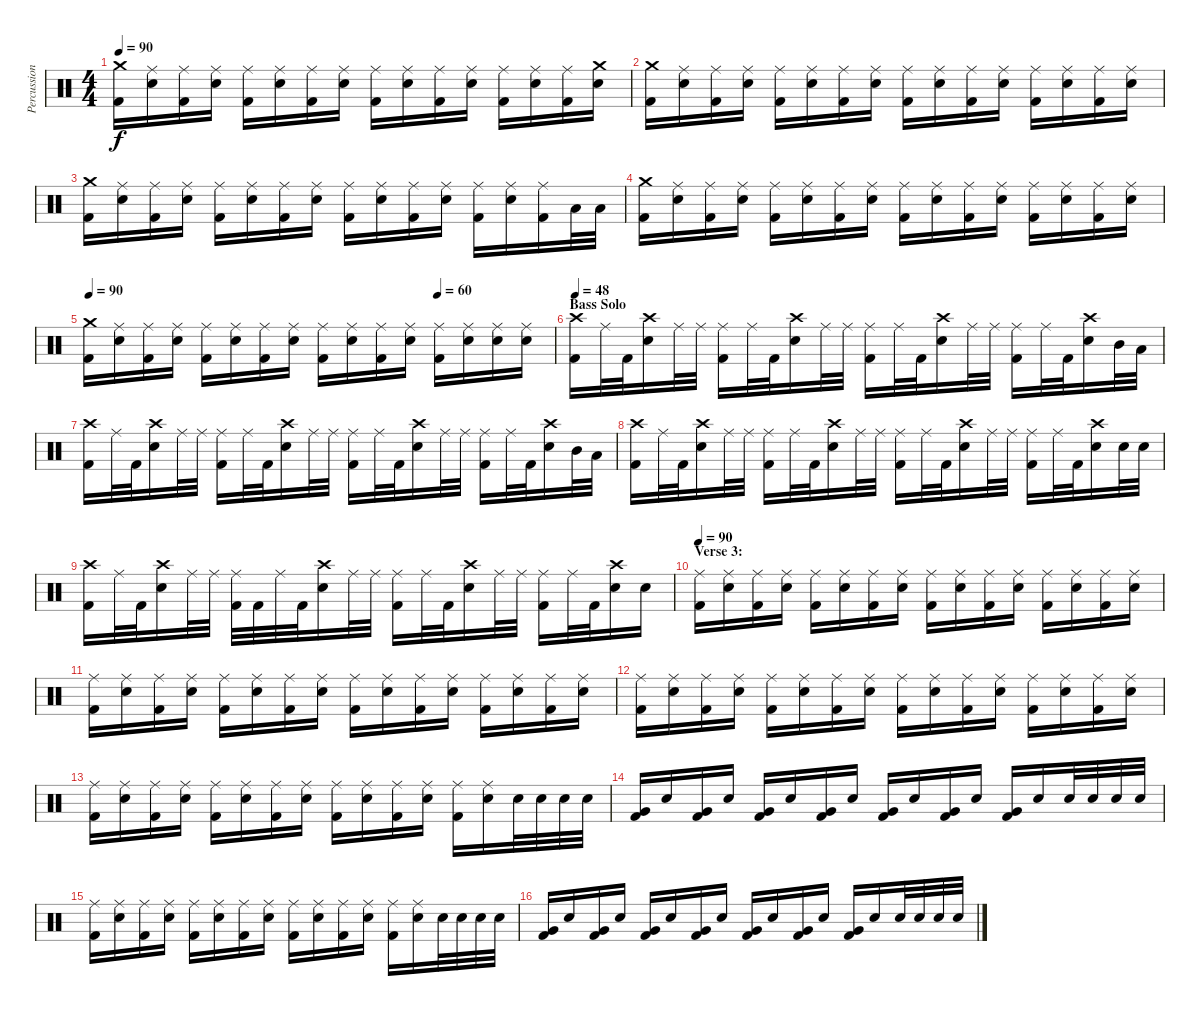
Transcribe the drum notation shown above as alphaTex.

\track ("Percussion" "Percussion") {instrument percussion}
\staff {score}
\articulation defaults
\ts (4 4)
\tempo 90
\clef neutral
\ks c
("Crash medium (hit)" "Kick (hit) 2").16{dy f} ("Ride (middle)" "Electric Snare (hit)").16 ("Ride (middle)" "Kick (hit) 2").16 ("Ride (middle)" "Electric Snare (hit)").16 ("Ride (middle)" "Kick (hit) 2").16 ("Ride (middle)" "Electric Snare (hit)").16 ("Ride (middle)" "Kick (hit) 2").16 ("Ride (middle)" "Electric Snare (hit)").16 ("Ride (middle)" "Kick (hit) 2").16 ("Ride (middle)" "Electric Snare (hit)").16 ("Ride (middle)" "Kick (hit) 2").16 ("Ride (middle)" "Electric Snare (hit)").16 ("Ride (middle)" "Kick (hit) 2").16 ("Ride (middle)" "Electric Snare (hit)").16 ("Ride (middle)" "Kick (hit) 2").16 ("Crash medium (hit)" "Electric Snare (hit)").16 |
("Crash medium (hit)" "Kick (hit) 2").16 ("Ride (middle)" "Electric Snare (hit)").16 ("Ride (middle)" "Kick (hit) 2").16 ("Ride (middle)" "Electric Snare (hit)").16 ("Ride (middle)" "Kick (hit) 2").16 ("Ride (middle)" "Electric Snare (hit)").16 ("Ride (middle)" "Kick (hit) 2").16 ("Ride (middle)" "Electric Snare (hit)").16 ("Ride (middle)" "Kick (hit) 2").16 ("Ride (middle)" "Electric Snare (hit)").16 ("Ride (middle)" "Kick (hit) 2").16 ("Ride (middle)" "Electric Snare (hit)").16 ("Ride (middle)" "Kick (hit) 2").16 ("Ride (middle)" "Electric Snare (hit)").16 ("Ride (middle)" "Kick (hit) 2").16 ("Ride (middle)" "Electric Snare (hit)").16 |
("Crash medium (hit)" "Kick (hit) 2").16 ("Ride (middle)" "Electric Snare (hit)").16 ("Ride (middle)" "Kick (hit) 2").16 ("Ride (middle)" "Electric Snare (hit)").16 ("Ride (middle)" "Kick (hit) 2").16 ("Ride (middle)" "Electric Snare (hit)").16 ("Ride (middle)" "Kick (hit) 2").16 ("Ride (middle)" "Electric Snare (hit)").16 ("Ride (middle)" "Kick (hit) 2").16 ("Ride (middle)" "Electric Snare (hit)").16 ("Ride (middle)" "Kick (hit) 2").16 ("Ride (middle)" "Electric Snare (hit)").16 ("Ride (middle)" "Kick (hit) 2").16 ("Ride (middle)" "Electric Snare (hit)").16 ("Ride (middle)" "Kick (hit) 2").16 "Low Tom (hit)".32 "Low Tom (hit)".32 |
("Crash medium (hit)" "Kick (hit) 2").16 ("Ride (middle)" "Electric Snare (hit)").16 ("Ride (middle)" "Kick (hit) 2").16 ("Ride (middle)" "Electric Snare (hit)").16 ("Ride (middle)" "Kick (hit) 2").16 ("Ride (middle)" "Electric Snare (hit)").16 ("Ride (middle)" "Kick (hit) 2").16 ("Ride (middle)" "Electric Snare (hit)").16 ("Ride (middle)" "Kick (hit) 2").16 ("Ride (middle)" "Electric Snare (hit)").16 ("Ride (middle)" "Kick (hit) 2").16 ("Ride (middle)" "Electric Snare (hit)").16 ("Ride (middle)" "Kick (hit) 2").16 ("Ride (middle)" "Electric Snare (hit)").16 ("Ride (middle)" "Kick (hit) 2").16 ("Ride (middle)" "Electric Snare (hit)").16 |
\tempo 90
\tempo (60 0.75)
("Crash medium (hit)" "Kick (hit) 2").16 ("Ride (middle)" "Electric Snare (hit)").16 ("Ride (middle)" "Kick (hit) 2").16 ("Ride (middle)" "Electric Snare (hit)").16 ("Ride (middle)" "Kick (hit) 2").16 ("Ride (middle)" "Electric Snare (hit)").16 ("Ride (middle)" "Kick (hit) 2").16 ("Ride (middle)" "Electric Snare (hit)").16 ("Ride (middle)" "Kick (hit) 2").16 ("Ride (middle)" "Electric Snare (hit)").16 ("Ride (middle)" "Kick (hit) 2").16 ("Ride (middle)" "Electric Snare (hit)").16 ("Ride (middle)" "Kick (hit) 2").16 ("Ride (middle)" "Electric Snare (hit)").16 ("Ride (middle)" "Electric Snare (hit)").16 ("Ride (middle)" "Electric Snare (hit)").16 |
\section ("" "Bass Solo")
\tempo 48
("Crash high (hit)" "Kick (hit) 2").16 "Ride (middle)".32 "Kick (hit) 2".32 ("Crash high (hit)" "Electric Snare (hit)").16 "Ride (middle)".32 "Ride (middle)".32 ("Ride (middle)" "Kick (hit) 2").16 "Ride (middle)".32 "Kick (hit) 2".32 ("Crash high (hit)" "Electric Snare (hit)").16 "Ride (middle)".32 "Ride (middle)".32 ("Ride (middle)" "Kick (hit) 2").16 "Ride (middle)".32 "Kick (hit) 2".32 ("Crash high (hit)" "Electric Snare (hit)").16 "Ride (middle)".32 "Ride (middle)".32 ("Ride (middle)" "Kick (hit) 2").16 "Ride (middle)".32 "Kick (hit) 2".32 ("Crash high (hit)" "Electric Snare (hit)").16 "Mid Tom (hit)".32 "Low Tom (hit)".32 |
("Crash high (hit)" "Kick (hit) 2").16 "Ride (middle)".32 "Kick (hit) 2".32 ("Crash high (hit)" "Electric Snare (hit)").16 "Ride (middle)".32 "Ride (middle)".32 ("Ride (middle)" "Kick (hit) 2").16 "Ride (middle)".32 "Kick (hit) 2".32 ("Crash high (hit)" "Electric Snare (hit)").16 "Ride (middle)".32 "Ride (middle)".32 ("Ride (middle)" "Kick (hit) 2").16 "Ride (middle)".32 "Kick (hit) 2".32 ("Crash high (hit)" "Electric Snare (hit)").16 "Ride (middle)".32 "Ride (middle)".32 ("Ride (middle)" "Kick (hit) 2").16 "Ride (middle)".32 "Kick (hit) 2".32 ("Crash high (hit)" "Electric Snare (hit)").16 "Mid Tom (hit)".32 "Low Tom (hit)".32 |
("Crash high (hit)" "Kick (hit) 2").16 "Ride (middle)".32 "Kick (hit) 2".32 ("Crash high (hit)" "Electric Snare (hit)").16 "Ride (middle)".32 "Ride (middle)".32 ("Ride (middle)" "Kick (hit) 2").16 "Ride (middle)".32 "Kick (hit) 2".32 ("Crash high (hit)" "Electric Snare (hit)").16 "Ride (middle)".32 "Ride (middle)".32 ("Ride (middle)" "Kick (hit) 2").16 "Ride (middle)".32 "Kick (hit) 2".32 ("Crash high (hit)" "Electric Snare (hit)").16 "Ride (middle)".32 "Ride (middle)".32 ("Ride (middle)" "Kick (hit) 2").16 "Ride (middle)".32 "Kick (hit) 2".32 ("Crash high (hit)" "Electric Snare (hit)").16 "Electric Snare (hit)".32 "Electric Snare (hit)".32 |
("Crash high (hit)" "Kick (hit) 2").16 "Ride (middle)".32 "Kick (hit) 2".32 ("Crash high (hit)" "Electric Snare (hit)").16 "Ride (middle)".32 "Ride (middle)".32 ("Ride (middle)" "Kick (hit) 2").32 "Kick (hit) 2".32 "Ride (middle)".32 "Kick (hit) 2".32 ("Crash high (hit)" "Electric Snare (hit)").16 "Ride (middle)".32 "Ride (middle)".32 ("Ride (middle)" "Kick (hit) 2").16 "Ride (middle)".32 "Kick (hit) 2".32 ("Crash high (hit)" "Electric Snare (hit)").16 "Ride (middle)".32 "Ride (middle)".32 ("Ride (middle)" "Kick (hit) 2").16 "Ride (middle)".32 "Kick (hit) 2".32 ("Crash high (hit)" "Electric Snare (hit)").16 "Electric Snare (hit)".16 |
\section ("" "Verse 3:")
\tempo 90
("Ride (middle)" "Kick (hit) 2").16 ("Ride (middle)" "Electric Snare (hit)").16 ("Ride (middle)" "Kick (hit) 2").16 ("Ride (middle)" "Electric Snare (hit)").16 ("Ride (middle)" "Kick (hit) 2").16 ("Ride (middle)" "Electric Snare (hit)").16 ("Ride (middle)" "Kick (hit) 2").16 ("Ride (middle)" "Electric Snare (hit)").16 ("Ride (middle)" "Kick (hit) 2").16 ("Ride (middle)" "Electric Snare (hit)").16 ("Ride (middle)" "Kick (hit) 2").16 ("Ride (middle)" "Electric Snare (hit)").16 ("Ride (middle)" "Kick (hit) 2").16 ("Ride (middle)" "Electric Snare (hit)").16 ("Ride (middle)" "Kick (hit) 2").16 ("Ride (middle)" "Electric Snare (hit)").16 |
("Ride (middle)" "Kick (hit) 2").16 ("Ride (middle)" "Electric Snare (hit)").16 ("Ride (middle)" "Kick (hit) 2").16 ("Ride (middle)" "Electric Snare (hit)").16 ("Ride (middle)" "Kick (hit) 2").16 ("Ride (middle)" "Electric Snare (hit)").16 ("Ride (middle)" "Kick (hit) 2").16 ("Ride (middle)" "Electric Snare (hit)").16 ("Ride (middle)" "Kick (hit) 2").16 ("Ride (middle)" "Electric Snare (hit)").16 ("Ride (middle)" "Kick (hit) 2").16 ("Ride (middle)" "Electric Snare (hit)").16 ("Ride (middle)" "Kick (hit) 2").16 ("Ride (middle)" "Electric Snare (hit)").16 ("Ride (middle)" "Kick (hit) 2").16 ("Ride (middle)" "Electric Snare (hit)").16 |
("Ride (middle)" "Kick (hit) 2").16 ("Ride (middle)" "Electric Snare (hit)").16 ("Ride (middle)" "Kick (hit) 2").16 ("Ride (middle)" "Electric Snare (hit)").16 ("Ride (middle)" "Kick (hit) 2").16 ("Ride (middle)" "Electric Snare (hit)").16 ("Ride (middle)" "Kick (hit) 2").16 ("Ride (middle)" "Electric Snare (hit)").16 ("Ride (middle)" "Kick (hit) 2").16 ("Ride (middle)" "Electric Snare (hit)").16 ("Ride (middle)" "Kick (hit) 2").16 ("Ride (middle)" "Electric Snare (hit)").16 ("Ride (middle)" "Kick (hit) 2").16 ("Ride (middle)" "Electric Snare (hit)").16 ("Ride (middle)" "Kick (hit) 2").16 ("Ride (middle)" "Electric Snare (hit)").16 |
("Ride (middle)" "Kick (hit) 2").16 ("Ride (middle)" "Electric Snare (hit)").16 ("Ride (middle)" "Kick (hit) 2").16 ("Ride (middle)" "Electric Snare (hit)").16 ("Ride (middle)" "Kick (hit) 2").16 ("Ride (middle)" "Electric Snare (hit)").16 ("Ride (middle)" "Kick (hit) 2").16 ("Ride (middle)" "Electric Snare (hit)").16 ("Ride (middle)" "Kick (hit) 2").16 ("Ride (middle)" "Electric Snare (hit)").16 ("Ride (middle)" "Kick (hit) 2").16 ("Ride (middle)" "Electric Snare (hit)").16 ("Ride (middle)" "Kick (hit) 2").16 ("Ride (middle)" "Electric Snare (hit)").16 "Electric Snare (hit)".32 "Electric Snare (hit)".32 "Electric Snare (hit)".32 "Electric Snare (hit)".32 |
("Very Low Tom (hit)" "Kick (hit) 2").16 "Electric Snare (hit)".16 ("Very Low Tom (hit)" "Kick (hit) 2").16 "Electric Snare (hit)".16 ("Very Low Tom (hit)" "Kick (hit) 2").16 "Electric Snare (hit)".16 ("Very Low Tom (hit)" "Kick (hit) 2").16 "Electric Snare (hit)".16 ("Very Low Tom (hit)" "Kick (hit) 2").16 "Electric Snare (hit)".16 ("Very Low Tom (hit)" "Kick (hit) 2").16 "Electric Snare (hit)".16 ("Very Low Tom (hit)" "Kick (hit) 2").16 "Electric Snare (hit)".16 "Electric Snare (hit)".32 "Electric Snare (hit)".32 "Electric Snare (hit)".32 "Electric Snare (hit)".32 |
("Ride (middle)" "Kick (hit) 2").16 ("Ride (middle)" "Electric Snare (hit)").16 ("Ride (middle)" "Kick (hit) 2").16 ("Ride (middle)" "Electric Snare (hit)").16 ("Ride (middle)" "Kick (hit) 2").16 ("Ride (middle)" "Electric Snare (hit)").16 ("Ride (middle)" "Kick (hit) 2").16 ("Ride (middle)" "Electric Snare (hit)").16 ("Ride (middle)" "Kick (hit) 2").16 ("Ride (middle)" "Electric Snare (hit)").16 ("Ride (middle)" "Kick (hit) 2").16 ("Ride (middle)" "Electric Snare (hit)").16 ("Ride (middle)" "Kick (hit) 2").16 ("Ride (middle)" "Electric Snare (hit)").16 "Electric Snare (hit)".32 "Electric Snare (hit)".32 "Electric Snare (hit)".32 "Electric Snare (hit)".32 |
("Very Low Tom (hit)" "Kick (hit) 2").16 "Electric Snare (hit)".16 ("Very Low Tom (hit)" "Kick (hit) 2").16 "Electric Snare (hit)".16 ("Very Low Tom (hit)" "Kick (hit) 2").16 "Electric Snare (hit)".16 ("Very Low Tom (hit)" "Kick (hit) 2").16 "Electric Snare (hit)".16 ("Very Low Tom (hit)" "Kick (hit) 2").16 "Electric Snare (hit)".16 ("Very Low Tom (hit)" "Kick (hit) 2").16 "Electric Snare (hit)".16 ("Very Low Tom (hit)" "Kick (hit) 2").16 "Electric Snare (hit)".16 "Electric Snare (hit)".32 "Electric Snare (hit)".32 "Electric Snare (hit)".32 "Electric Snare (hit)".32
